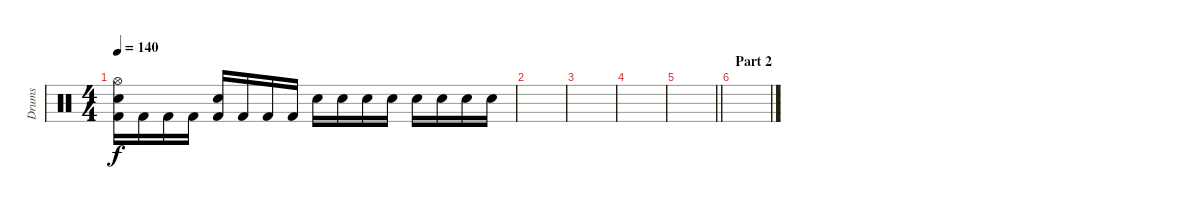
\track ("Drums" "Drums") {instrument percussion}
\staff {score}
\articulation defaults
\ts (4 4)
\tempo 140
\clef neutral
\ks c
("Hi-Hat (open)" "Snare (hit) 2" "Kick (hit) 2").16{dy f} "Kick (hit) 2".16 "Kick (hit) 2".16 "Kick (hit) 2".16 ("Snare (hit) 2" "Kick (hit) 2").16 "Kick (hit) 2".16 "Kick (hit) 2".16 "Kick (hit) 2".16 "Snare (hit) 2".16 "Snare (hit) 2".16 "Snare (hit) 2".16 "Snare (hit) 2".16 "Snare (hit) 2".16 "Snare (hit) 2".16 "Snare (hit) 2".16 "Snare (hit) 2".16 |
|
|
|
\barLineRight lightlight
|
\section ("" "Part 2")
